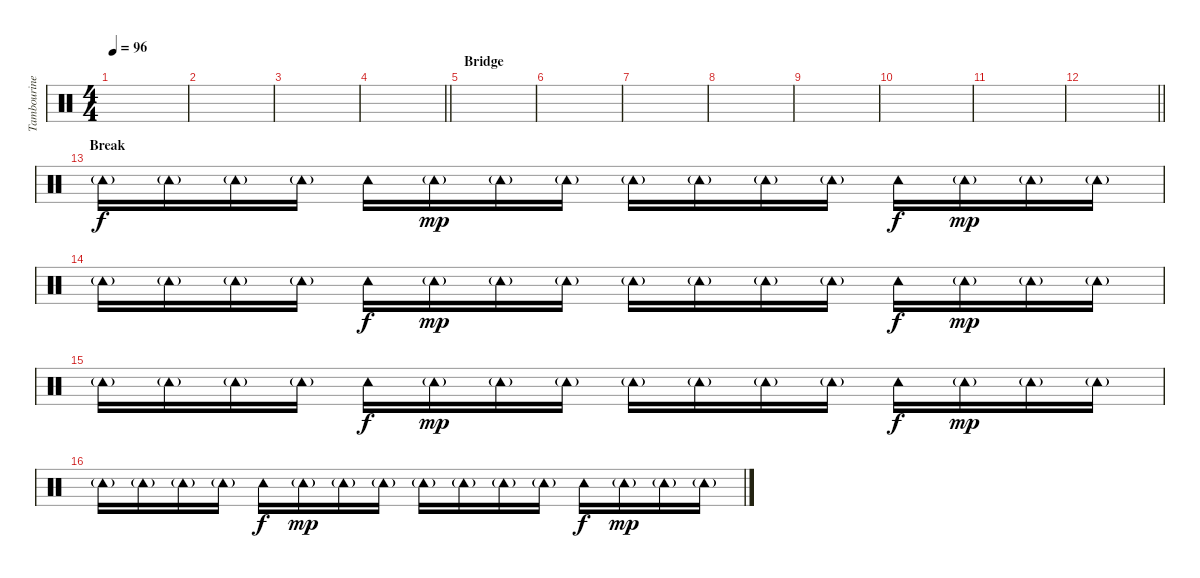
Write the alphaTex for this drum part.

\track ("Tambourine" "Tambourine") {instrument percussion}
\staff {score}
\articulation defaults
\ts (4 4)
\tempo 96
\clef neutral
\ks c
|
|
|
\barLineRight lightlight
|
\section ("" "Bridge")
|
|
|
|
|
|
|
\barLineRight lightlight
|
\section ("" "Break")
"Tambourine (hit)"{g}.16 "Tambourine (hit)"{g}.16 "Tambourine (hit)"{g}.16 "Tambourine (hit)"{g}.16 "Tambourine (hit)".16{dy f} "Tambourine (hit)"{g}.16{dy mp} "Tambourine (hit)"{g}.16 "Tambourine (hit)"{g}.16 "Tambourine (hit)"{g}.16 "Tambourine (hit)"{g}.16 "Tambourine (hit)"{g}.16 "Tambourine (hit)"{g}.16 "Tambourine (hit)".16{dy f} "Tambourine (hit)"{g}.16{dy mp} "Tambourine (hit)"{g}.16 "Tambourine (hit)"{g}.16 |
"Tambourine (hit)"{g}.16 "Tambourine (hit)"{g}.16 "Tambourine (hit)"{g}.16 "Tambourine (hit)"{g}.16 "Tambourine (hit)".16{dy f} "Tambourine (hit)"{g}.16{dy mp} "Tambourine (hit)"{g}.16 "Tambourine (hit)"{g}.16 "Tambourine (hit)"{g}.16 "Tambourine (hit)"{g}.16 "Tambourine (hit)"{g}.16 "Tambourine (hit)"{g}.16 "Tambourine (hit)".16{dy f} "Tambourine (hit)"{g}.16{dy mp} "Tambourine (hit)"{g}.16 "Tambourine (hit)"{g}.16 |
"Tambourine (hit)"{g}.16 "Tambourine (hit)"{g}.16 "Tambourine (hit)"{g}.16 "Tambourine (hit)"{g}.16 "Tambourine (hit)".16{dy f} "Tambourine (hit)"{g}.16{dy mp} "Tambourine (hit)"{g}.16 "Tambourine (hit)"{g}.16 "Tambourine (hit)"{g}.16 "Tambourine (hit)"{g}.16 "Tambourine (hit)"{g}.16 "Tambourine (hit)"{g}.16 "Tambourine (hit)".16{dy f} "Tambourine (hit)"{g}.16{dy mp} "Tambourine (hit)"{g}.16 "Tambourine (hit)"{g}.16 |
"Tambourine (hit)"{g}.16 "Tambourine (hit)"{g}.16 "Tambourine (hit)"{g}.16 "Tambourine (hit)"{g}.16 "Tambourine (hit)".16{dy f} "Tambourine (hit)"{g}.16{dy mp} "Tambourine (hit)"{g}.16 "Tambourine (hit)"{g}.16 "Tambourine (hit)"{g}.16 "Tambourine (hit)"{g}.16 "Tambourine (hit)"{g}.16 "Tambourine (hit)"{g}.16 "Tambourine (hit)".16{dy f} "Tambourine (hit)"{g}.16{dy mp} "Tambourine (hit)"{g}.16 "Tambourine (hit)"{g}.16
